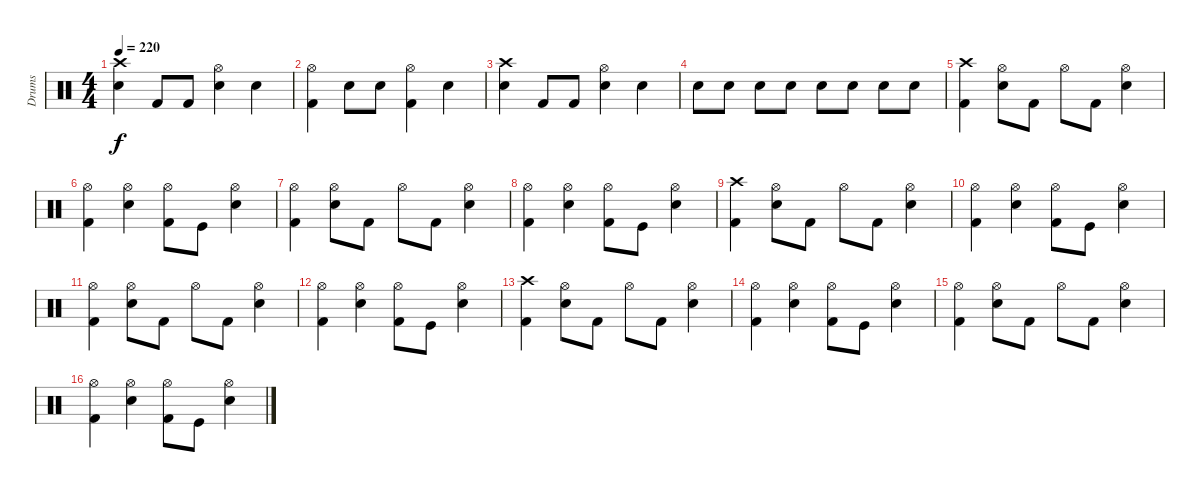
\track ("Drums" "Drums") {instrument percussion}
\staff {score}
\articulation defaults
\ts (4 4)
\tempo 220
\clef neutral
\ks c
("Crash high (hit)" "Electric Snare (hit)").4{dy f} "Kick (hit) 2".8 "Kick (hit) 2".8 ("Hi-Hat (open)" "Electric Snare (hit)").4 "Electric Snare (hit)".4 |
("Hi-Hat (open)" "Kick (hit) 2").4 "Electric Snare (hit)".8 "Electric Snare (hit)".8 ("Hi-Hat (open)" "Kick (hit) 2").4 "Electric Snare (hit)".4 |
("Crash high (hit)" "Electric Snare (hit)").4 "Kick (hit) 2".8 "Kick (hit) 2".8 ("Hi-Hat (open)" "Electric Snare (hit)").4 "Electric Snare (hit)".4 |
"Electric Snare (hit)".8 "Electric Snare (hit)".8 "Electric Snare (hit)".8 "Electric Snare (hit)".8 "Electric Snare (hit)".8 "Electric Snare (hit)".8 "Electric Snare (hit)".8 "Electric Snare (hit)".8 |
("Crash high (hit)" "Kick (hit) 2").4 ("Hi-Hat (open)" "Electric Snare (hit)").8 "Kick (hit) 2".8 "Hi-Hat (open)".8 "Kick (hit) 2".8 ("Hi-Hat (open)" "Electric Snare (hit)").4 |
("Hi-Hat (open)" "Kick (hit) 2").4 ("Hi-Hat (open)" "Electric Snare (hit)").4 ("Hi-Hat (open)" "Kick (hit) 2").8 "Kick (hit)".8 ("Hi-Hat (open)" "Electric Snare (hit)").4 |
("Hi-Hat (open)" "Kick (hit) 2").4 ("Hi-Hat (open)" "Electric Snare (hit)").8 "Kick (hit) 2".8 "Hi-Hat (open)".8 "Kick (hit) 2".8 ("Hi-Hat (open)" "Electric Snare (hit)").4 |
("Hi-Hat (open)" "Kick (hit) 2").4 ("Hi-Hat (open)" "Electric Snare (hit)").4 ("Hi-Hat (open)" "Kick (hit) 2").8 "Kick (hit)".8 ("Hi-Hat (open)" "Electric Snare (hit)").4 |
("Crash high (hit)" "Kick (hit) 2").4 ("Hi-Hat (open)" "Electric Snare (hit)").8 "Kick (hit) 2".8 "Hi-Hat (open)".8 "Kick (hit) 2".8 ("Hi-Hat (open)" "Electric Snare (hit)").4 |
("Hi-Hat (open)" "Kick (hit) 2").4 ("Hi-Hat (open)" "Electric Snare (hit)").4 ("Hi-Hat (open)" "Kick (hit) 2").8 "Kick (hit)".8 ("Hi-Hat (open)" "Electric Snare (hit)").4 |
("Hi-Hat (open)" "Kick (hit) 2").4 ("Hi-Hat (open)" "Electric Snare (hit)").8 "Kick (hit) 2".8 "Hi-Hat (open)".8 "Kick (hit) 2".8 ("Hi-Hat (open)" "Electric Snare (hit)").4 |
("Hi-Hat (open)" "Kick (hit) 2").4 ("Hi-Hat (open)" "Electric Snare (hit)").4 ("Hi-Hat (open)" "Kick (hit) 2").8 "Kick (hit)".8 ("Hi-Hat (open)" "Electric Snare (hit)").4 |
("Crash high (hit)" "Kick (hit) 2").4 ("Hi-Hat (open)" "Electric Snare (hit)").8 "Kick (hit) 2".8 "Hi-Hat (open)".8 "Kick (hit) 2".8 ("Hi-Hat (open)" "Electric Snare (hit)").4 |
("Hi-Hat (open)" "Kick (hit) 2").4 ("Hi-Hat (open)" "Electric Snare (hit)").4 ("Hi-Hat (open)" "Kick (hit) 2").8 "Kick (hit)".8 ("Hi-Hat (open)" "Electric Snare (hit)").4 |
("Hi-Hat (open)" "Kick (hit) 2").4 ("Hi-Hat (open)" "Electric Snare (hit)").8 "Kick (hit) 2".8 "Hi-Hat (open)".8 "Kick (hit) 2".8 ("Hi-Hat (open)" "Electric Snare (hit)").4 |
("Hi-Hat (open)" "Kick (hit) 2").4 ("Hi-Hat (open)" "Electric Snare (hit)").4 ("Hi-Hat (open)" "Kick (hit) 2").8 "Kick (hit)".8 ("Hi-Hat (open)" "Electric Snare (hit)").4
